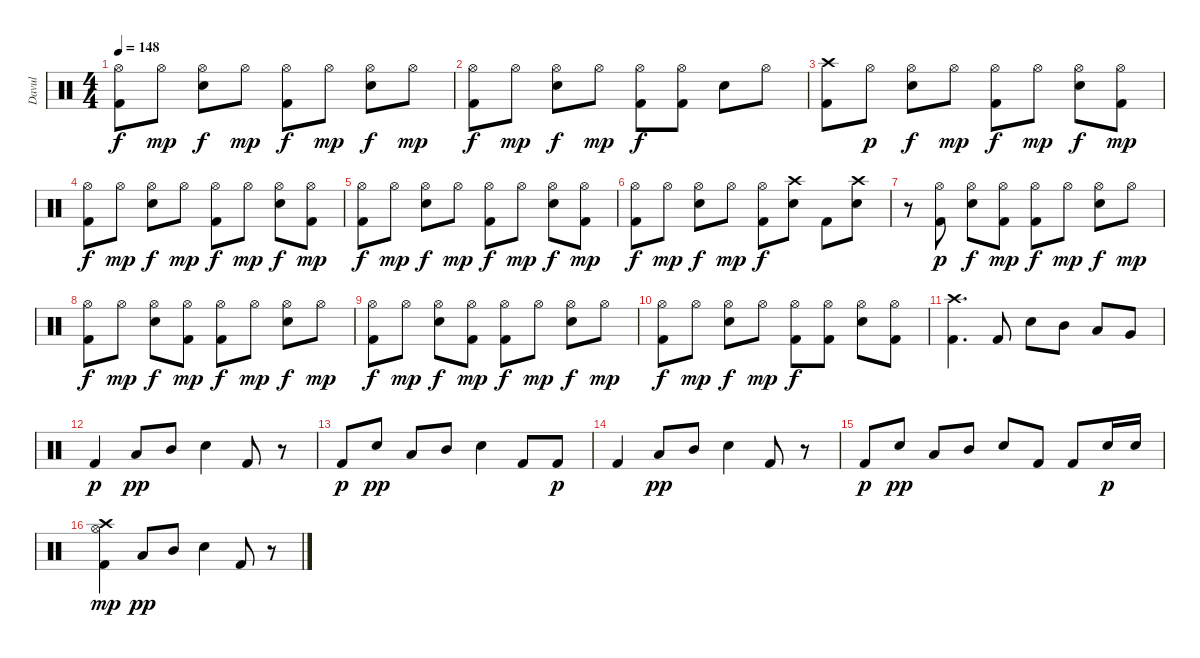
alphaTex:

\track ("Davul" "Davul") {instrument percussion}
\staff {score}
\articulation defaults
\ts (4 4)
\tempo 148
\clef neutral
\ks c
("Hi-Hat (open)" "Kick (hit) 2").8{dy f} "Hi-Hat (open)".8{dy mp} ("Hi-Hat (open)" "Electric Snare (hit)").8{dy f} "Hi-Hat (open)".8{dy mp} ("Hi-Hat (open)" "Kick (hit) 2").8{dy f} "Hi-Hat (open)".8{dy mp} ("Hi-Hat (open)" "Electric Snare (hit)").8{dy f} "Hi-Hat (open)".8{dy mp} |
("Hi-Hat (open)" "Kick (hit) 2").8{dy f} "Hi-Hat (open)".8{dy mp} ("Hi-Hat (open)" "Electric Snare (hit)").8{dy f} "Hi-Hat (open)".8{dy mp} ("Hi-Hat (open)" "Kick (hit) 2").8{dy f} ("Hi-Hat (open)" "Kick (hit) 2").8 "Electric Snare (hit)".8 "Hi-Hat (open)".8 |
("Crash high (hit)" "Kick (hit) 2").8 "Hi-Hat (open)".8{dy p} ("Hi-Hat (open)" "Electric Snare (hit)").8{dy f} "Hi-Hat (open)".8{dy mp} ("Hi-Hat (open)" "Kick (hit) 2").8{dy f} "Hi-Hat (open)".8{dy mp} ("Hi-Hat (open)" "Electric Snare (hit)").8{dy f} ("Hi-Hat (open)" "Kick (hit) 2").8{dy mp} |
("Hi-Hat (open)" "Kick (hit) 2").8{dy f} "Hi-Hat (open)".8{dy mp} ("Hi-Hat (open)" "Electric Snare (hit)").8{dy f} "Hi-Hat (open)".8{dy mp} ("Hi-Hat (open)" "Kick (hit) 2").8{dy f} "Hi-Hat (open)".8{dy mp} ("Hi-Hat (open)" "Electric Snare (hit)").8{dy f} ("Hi-Hat (open)" "Kick (hit) 2").8{dy mp} |
("Hi-Hat (open)" "Kick (hit) 2").8{dy f} "Hi-Hat (open)".8{dy mp} ("Hi-Hat (open)" "Electric Snare (hit)").8{dy f} "Hi-Hat (open)".8{dy mp} ("Hi-Hat (open)" "Kick (hit) 2").8{dy f} "Hi-Hat (open)".8{dy mp} ("Hi-Hat (open)" "Electric Snare (hit)").8{dy f} ("Hi-Hat (open)" "Kick (hit) 2").8{dy mp} |
("Hi-Hat (open)" "Kick (hit) 2").8{dy f} "Hi-Hat (open)".8{dy mp} ("Hi-Hat (open)" "Electric Snare (hit)").8{dy f} "Hi-Hat (open)".8{dy mp} ("Hi-Hat (open)" "Kick (hit) 2").8{dy f} ("Crash high (hit)" "Electric Snare (hit)").8 "Kick (hit) 2".8 ("Crash high (hit)" "Electric Snare (hit)").8 |
r.8 ("Hi-Hat (open)" "Kick (hit) 2").8{dy p} ("Hi-Hat (open)" "Electric Snare (hit)").8{dy f} ("Hi-Hat (open)" "Kick (hit) 2").8{dy mp} ("Hi-Hat (open)" "Kick (hit) 2").8{dy f} "Hi-Hat (open)".8{dy mp} ("Hi-Hat (open)" "Electric Snare (hit)").8{dy f} "Hi-Hat (open)".8{dy mp} |
("Hi-Hat (open)" "Kick (hit) 2").8{dy f} "Hi-Hat (open)".8{dy mp} ("Hi-Hat (open)" "Electric Snare (hit)").8{dy f} ("Hi-Hat (open)" "Kick (hit) 2").8{dy mp} ("Hi-Hat (open)" "Kick (hit) 2").8{dy f} "Hi-Hat (open)".8{dy mp} ("Hi-Hat (open)" "Electric Snare (hit)").8{dy f} "Hi-Hat (open)".8{dy mp} |
("Hi-Hat (open)" "Kick (hit) 2").8{dy f} "Hi-Hat (open)".8{dy mp} ("Hi-Hat (open)" "Electric Snare (hit)").8{dy f} ("Hi-Hat (open)" "Kick (hit) 2").8{dy mp} ("Hi-Hat (open)" "Kick (hit) 2").8{dy f} "Hi-Hat (open)".8{dy mp} ("Hi-Hat (open)" "Electric Snare (hit)").8{dy f} "Hi-Hat (open)".8{dy mp} |
("Hi-Hat (open)" "Kick (hit) 2").8{dy f} "Hi-Hat (open)".8{dy mp} ("Hi-Hat (open)" "Electric Snare (hit)").8{dy f} "Hi-Hat (open)".8{dy mp} ("Hi-Hat (open)" "Kick (hit) 2").8{dy f} ("Hi-Hat (open)" "Kick (hit) 2").8 ("Hi-Hat (open)" "Electric Snare (hit)").8 ("Hi-Hat (open)" "Kick (hit) 2").8 |
("Kick (hit) 2" "Crash high (hit)").4{d} "Kick (hit) 2".8 "Electric Snare (hit)".8 "Mid Tom (hit)".8 "Low Tom (hit)".8 "Very Low Tom (hit)".8 |
"Kick (hit) 2".4{dy p} "Low Tom (hit)".8{dy pp} "Mid Tom (hit)".8 "Electric Snare (hit)".4 "Kick (hit) 2".8 r.8 |
"Kick (hit) 2".8{dy p} "Electric Snare (hit)".8{dy pp} "Low Tom (hit)".8 "Mid Tom (hit)".8 "Electric Snare (hit)".4 "Kick (hit) 2".8 "Kick (hit) 2".8{dy p} |
"Kick (hit) 2".4 "Low Tom (hit)".8{dy pp} "Mid Tom (hit)".8 "Electric Snare (hit)".4 "Kick (hit) 2".8 r.8 |
"Kick (hit) 2".8{dy p} "Electric Snare (hit)".8{dy pp} "Low Tom (hit)".8 "Mid Tom (hit)".8 "Electric Snare (hit)".8 "Kick (hit) 2".8 "Kick (hit) 2".8 "Electric Snare (hit)".16{dy p} "Electric Snare (hit)".16 |
("Kick (hit) 2" "Hi-Hat (open)" "Crash high (hit)").4{dy mp} "Low Tom (hit)".8{dy pp} "Mid Tom (hit)".8 "Electric Snare (hit)".4 "Kick (hit) 2".8 r.8
